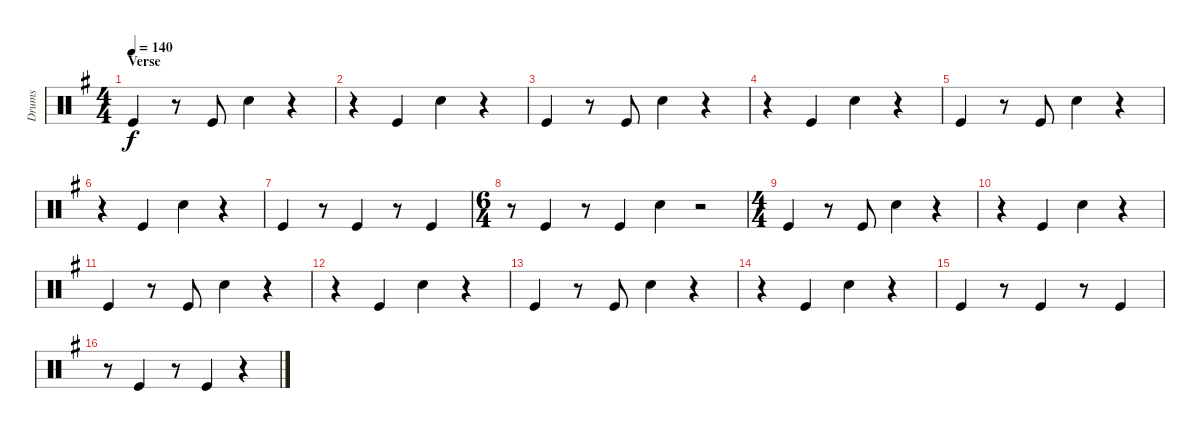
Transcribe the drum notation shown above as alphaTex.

\track ("Drums" "Drums") {instrument percussion}
\staff {score}
\articulation defaults
\ts (4 4)
\section ("" "Verse")
\tempo 140
\clef neutral
\ks g "Kick (hit)".4{dy f}
r.8 "Kick (hit)".8 "Snare (hit) 2".4 r.4 |
r.4 "Kick (hit)".4 "Snare (hit) 2".4 r.4 |
"Kick (hit)".4 r.8 "Kick (hit)".8 "Snare (hit) 2".4 r.4 |
r.4 "Kick (hit)".4 "Snare (hit) 2".4 r.4 |
"Kick (hit)".4 r.8 "Kick (hit)".8 "Snare (hit) 2".4 r.4 |
r.4 "Kick (hit)".4 "Snare (hit) 2".4 r.4 |
"Kick (hit)".4 r.8 "Kick (hit)".4 r.8 "Kick (hit)".4 |
\ts (6 4)
r.8 "Kick (hit)".4 r.8 "Kick (hit)".4 "Snare (hit) 2".4 r.2 |
\ts (4 4)
"Kick (hit)".4 r.8 "Kick (hit)".8 "Snare (hit) 2".4 r.4 |
r.4 "Kick (hit)".4 "Snare (hit) 2".4 r.4 |
"Kick (hit)".4 r.8 "Kick (hit)".8 "Snare (hit) 2".4 r.4 |
r.4 "Kick (hit)".4 "Snare (hit) 2".4 r.4 |
"Kick (hit)".4 r.8 "Kick (hit)".8 "Snare (hit) 2".4 r.4 |
r.4 "Kick (hit)".4 "Snare (hit) 2".4 r.4 |
"Kick (hit)".4 r.8 "Kick (hit)".4 r.8 "Kick (hit)".4 |
r.8 "Kick (hit)".4 r.8 "Kick (hit)".4 r.4
